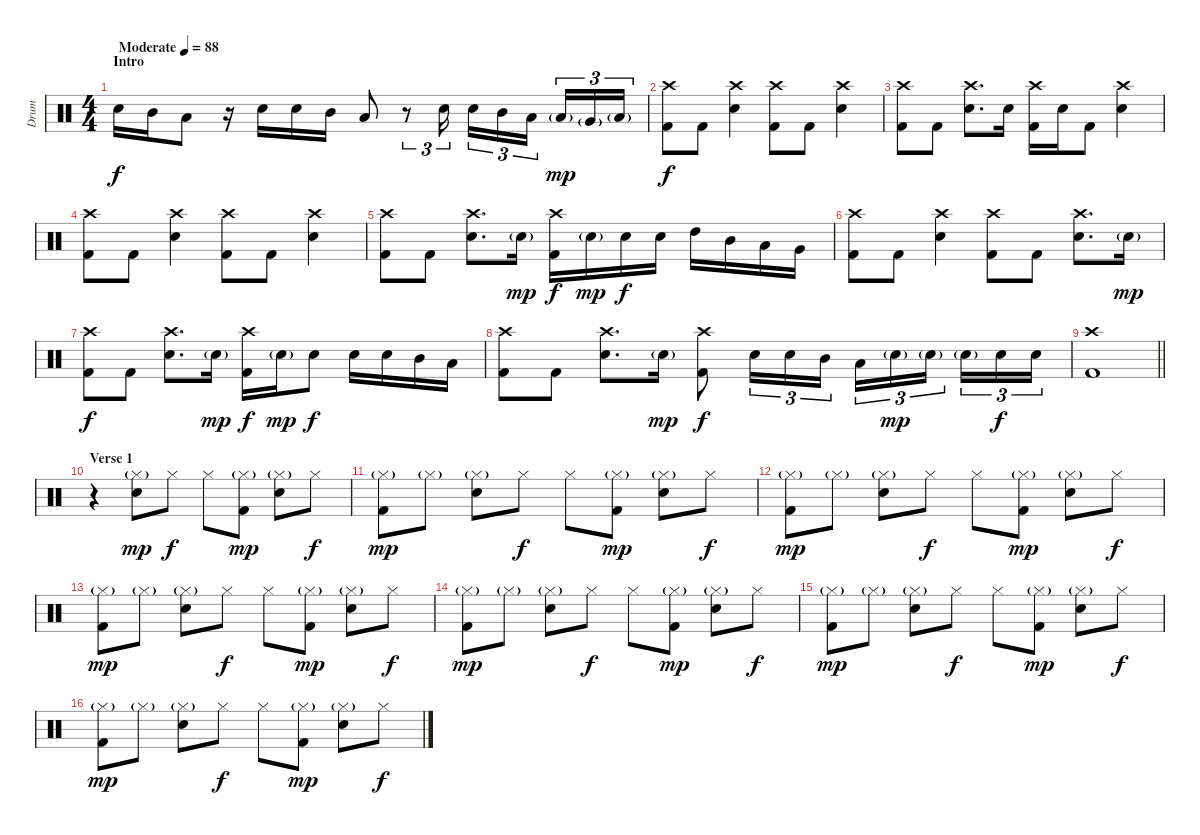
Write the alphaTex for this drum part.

\track ("Drum" "Drum") {instrument percussion}
\staff {score}
\articulation defaults
\ts (4 4)
\section ("" "Intro")
\tempo (88 "Moderate")
\clef neutral
\ks c "Electric Snare (hit)".16{dy f} "Mid Tom (hit)".16 "Low Tom (hit)".8
r.16 "Electric Snare (hit)".16 "Electric Snare (hit)".16 "Mid Tom (hit)".16 "Low Tom (hit)".8 r.8{tu (3 2)} "Electric Snare (hit)".16{tu (3 2)} "Electric Snare (hit)".16{tu (3 2)} "Mid Tom (hit)".16{tu (3 2)} "Low Tom (hit)".16{tu (3 2) beam splitsecondary} "Low Tom (hit)"{g}.16{tu (3 2) dy mp} "Very Low Tom (hit)"{g}.16{tu (3 2)} "Low Floor Tom (hit)"{g}.16{tu (3 2)} |
("Crash high (hit)" "Kick (hit) 2").8{dy f} "Kick (hit) 2".8 ("Crash high (hit)" "Electric Snare (hit)").4 ("Crash high (hit)" "Kick (hit) 2").8 "Kick (hit) 2".8 ("Crash high (hit)" "Electric Snare (hit)").4 |
("Crash high (hit)" "Kick (hit) 2").8 "Kick (hit) 2".8 ("Crash high (hit)" "Electric Snare (hit)").8{d} "Electric Snare (hit)".16 ("Crash high (hit)" "Kick (hit) 2").16 "Electric Snare (hit)".16 "Kick (hit) 2".8 ("Crash high (hit)" "Electric Snare (hit)").4 |
("Crash high (hit)" "Kick (hit) 2").8 "Kick (hit) 2".8 ("Crash high (hit)" "Electric Snare (hit)").4 ("Crash high (hit)" "Kick (hit) 2").8 "Kick (hit) 2".8 ("Crash high (hit)" "Electric Snare (hit)").4 |
("Crash high (hit)" "Kick (hit) 2").8 "Kick (hit) 2".8 ("Crash high (hit)" "Electric Snare (hit)").8{d} "Electric Snare (hit)"{g}.16{dy mp} ("Crash high (hit)" "Kick (hit) 2").16{dy f} "Electric Snare (hit)"{g}.16{dy mp} "Electric Snare (hit)".16{dy f} "Electric Snare (hit)".16 "High Tom (hit)".16 "Mid Tom (hit)".16 "Low Tom (hit)".16 "Very Low Tom (hit)".16 |
("Crash high (hit)" "Kick (hit) 2").8 "Kick (hit) 2".8 ("Crash high (hit)" "Electric Snare (hit)").4 ("Crash high (hit)" "Kick (hit) 2").8 "Kick (hit) 2".8 ("Crash high (hit)" "Electric Snare (hit)").8{d} "Electric Snare (hit)"{g}.16{dy mp} |
("Crash high (hit)" "Kick (hit) 2").8{dy f} "Kick (hit) 2".8 ("Crash high (hit)" "Electric Snare (hit)").8{d} "Electric Snare (hit)"{g}.16{dy mp} ("Crash high (hit)" "Kick (hit) 2").16{dy f} "Electric Snare (hit)"{g}.16{dy mp} "Electric Snare (hit)".8{dy f} "Electric Snare (hit)".16 "Electric Snare (hit)".16 "Mid Tom (hit)".16 "Low Tom (hit)".16 |
("Crash high (hit)" "Kick (hit) 2").8 "Kick (hit) 2".8 ("Crash high (hit)" "Electric Snare (hit)").8{d} "Electric Snare (hit)"{g}.16{dy mp} ("Crash high (hit)" "Kick (hit) 2").8{dy f} "Electric Snare (hit)".16{tu (3 2)} "Electric Snare (hit)".16{tu (3 2)} "Mid Tom (hit)".16{tu (3 2)} "Low Tom (hit)".16{tu (3 2)} "Electric Snare (hit)"{g}.16{tu (3 2) dy mp} "Electric Snare (hit)"{g}.16{tu (3 2) beam splitsecondary} "Electric Snare (hit)"{g}.16{tu (3 2)} "Electric Snare (hit)".16{tu (3 2) dy f} "Electric Snare (hit)".16{tu (3 2)} |
\barLineRight lightlight
("Crash high (hit)" "Kick (hit) 2").1 |
\section ("" "Verse 1")
r.4{volume 12} ("Hi-Hat (closed)"{g} "Electric Snare (hit)").8{dy mp} "Hi-Hat (closed)".8{dy f} "Hi-Hat (closed)".8 ("Hi-Hat (closed)"{g} "Kick (hit) 2").8{dy mp} ("Hi-Hat (closed)"{g} "Electric Snare (hit)").8 "Hi-Hat (closed)".8{dy f} |
("Hi-Hat (closed)"{g} "Kick (hit) 2").8{dy mp} "Hi-Hat (closed)"{g}.8 ("Hi-Hat (closed)"{g} "Electric Snare (hit)").8 "Hi-Hat (closed)".8{dy f} "Hi-Hat (closed)".8 ("Hi-Hat (closed)"{g} "Kick (hit) 2").8{dy mp} ("Hi-Hat (closed)"{g} "Electric Snare (hit)").8 "Hi-Hat (closed)".8{dy f} |
("Hi-Hat (closed)"{g} "Kick (hit) 2").8{dy mp} "Hi-Hat (closed)"{g}.8 ("Hi-Hat (closed)"{g} "Electric Snare (hit)").8 "Hi-Hat (closed)".8{dy f} "Hi-Hat (closed)".8 ("Hi-Hat (closed)"{g} "Kick (hit) 2").8{dy mp} ("Hi-Hat (closed)"{g} "Electric Snare (hit)").8 "Hi-Hat (closed)".8{dy f} |
("Hi-Hat (closed)"{g} "Kick (hit) 2").8{dy mp} "Hi-Hat (closed)"{g}.8 ("Hi-Hat (closed)"{g} "Electric Snare (hit)").8 "Hi-Hat (closed)".8{dy f} "Hi-Hat (closed)".8 ("Hi-Hat (closed)"{g} "Kick (hit) 2").8{dy mp} ("Hi-Hat (closed)"{g} "Electric Snare (hit)").8 "Hi-Hat (closed)".8{dy f} |
("Hi-Hat (closed)"{g} "Kick (hit) 2").8{dy mp} "Hi-Hat (closed)"{g}.8 ("Hi-Hat (closed)"{g} "Electric Snare (hit)").8 "Hi-Hat (closed)".8{dy f} "Hi-Hat (closed)".8 ("Hi-Hat (closed)"{g} "Kick (hit) 2").8{dy mp} ("Hi-Hat (closed)"{g} "Electric Snare (hit)").8 "Hi-Hat (closed)".8{dy f} |
("Hi-Hat (closed)"{g} "Kick (hit) 2").8{dy mp} "Hi-Hat (closed)"{g}.8 ("Hi-Hat (closed)"{g} "Electric Snare (hit)").8 "Hi-Hat (closed)".8{dy f} "Hi-Hat (closed)".8 ("Hi-Hat (closed)"{g} "Kick (hit) 2").8{dy mp} ("Hi-Hat (closed)"{g} "Electric Snare (hit)").8 "Hi-Hat (closed)".8{dy f} |
("Hi-Hat (closed)"{g} "Kick (hit) 2").8{dy mp} "Hi-Hat (closed)"{g}.8 ("Hi-Hat (closed)"{g} "Electric Snare (hit)").8 "Hi-Hat (closed)".8{dy f} "Hi-Hat (closed)".8 ("Hi-Hat (closed)"{g} "Kick (hit) 2").8{dy mp} ("Hi-Hat (closed)"{g} "Electric Snare (hit)").8 "Hi-Hat (closed)".8{dy f}
